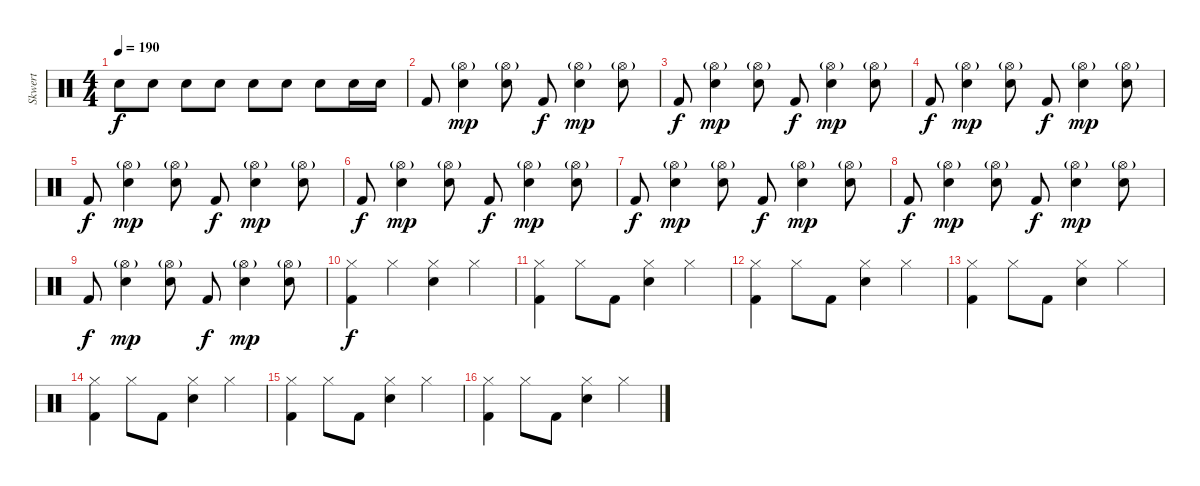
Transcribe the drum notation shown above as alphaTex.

\track ("Skwert" "Skwert") {instrument percussion}
\staff {score}
\articulation defaults
\ts (4 4)
\tempo 190
\clef neutral
\ks c "Electric Snare (hit)".8{dy f} "Electric Snare (hit)".8 "Electric Snare (hit)".8 "Electric Snare (hit)".8 "Electric Snare (hit)".8 "Electric Snare (hit)".8 "Electric Snare (hit)".8 "Electric Snare (hit)".16 "Electric Snare (hit)".16
|
"Kick (hit) 2".8 ("Hi-Hat (open)"{g} "Electric Snare (hit)").4{dy mp} ("Hi-Hat (open)"{g} "Electric Snare (hit)").8 "Kick (hit) 2".8{dy f} ("Hi-Hat (open)"{g} "Electric Snare (hit)").4{dy mp} ("Hi-Hat (open)"{g} "Electric Snare (hit)").8 |
"Kick (hit) 2".8{dy f} ("Hi-Hat (open)"{g} "Electric Snare (hit)").4{dy mp} ("Hi-Hat (open)"{g} "Electric Snare (hit)").8 "Kick (hit) 2".8{dy f} ("Hi-Hat (open)"{g} "Electric Snare (hit)").4{dy mp} ("Hi-Hat (open)"{g} "Electric Snare (hit)").8 |
"Kick (hit) 2".8{dy f} ("Hi-Hat (open)"{g} "Electric Snare (hit)").4{dy mp} ("Hi-Hat (open)"{g} "Electric Snare (hit)").8 "Kick (hit) 2".8{dy f} ("Hi-Hat (open)"{g} "Electric Snare (hit)").4{dy mp} ("Hi-Hat (open)"{g} "Electric Snare (hit)").8 |
"Kick (hit) 2".8{dy f} ("Hi-Hat (open)"{g} "Electric Snare (hit)").4{dy mp} ("Hi-Hat (open)"{g} "Electric Snare (hit)").8 "Kick (hit) 2".8{dy f} ("Hi-Hat (open)"{g} "Electric Snare (hit)").4{dy mp} ("Hi-Hat (open)"{g} "Electric Snare (hit)").8 |
"Kick (hit) 2".8{dy f} ("Hi-Hat (open)"{g} "Electric Snare (hit)").4{dy mp} ("Hi-Hat (open)"{g} "Electric Snare (hit)").8 "Kick (hit) 2".8{dy f} ("Hi-Hat (open)"{g} "Electric Snare (hit)").4{dy mp} ("Hi-Hat (open)"{g} "Electric Snare (hit)").8 |
"Kick (hit) 2".8{dy f} ("Hi-Hat (open)"{g} "Electric Snare (hit)").4{dy mp} ("Hi-Hat (open)"{g} "Electric Snare (hit)").8 "Kick (hit) 2".8{dy f} ("Hi-Hat (open)"{g} "Electric Snare (hit)").4{dy mp} ("Hi-Hat (open)"{g} "Electric Snare (hit)").8 |
"Kick (hit) 2".8{dy f} ("Hi-Hat (open)"{g} "Electric Snare (hit)").4{dy mp} ("Hi-Hat (open)"{g} "Electric Snare (hit)").8 "Kick (hit) 2".8{dy f} ("Hi-Hat (open)"{g} "Electric Snare (hit)").4{dy mp} ("Hi-Hat (open)"{g} "Electric Snare (hit)").8 |
"Kick (hit) 2".8{dy f} ("Hi-Hat (open)"{g} "Electric Snare (hit)").4{dy mp} ("Hi-Hat (open)"{g} "Electric Snare (hit)").8 "Kick (hit) 2".8{dy f} ("Hi-Hat (open)"{g} "Electric Snare (hit)").4{dy mp} ("Hi-Hat (open)"{g} "Electric Snare (hit)").8 |
("Hi-Hat (closed)" "Kick (hit) 2").4{dy f} "Hi-Hat (closed)".4 ("Hi-Hat (closed)" "Electric Snare (hit)").4 "Hi-Hat (closed)".4 |
("Hi-Hat (closed)" "Kick (hit) 2").4 "Hi-Hat (closed)".8 "Kick (hit) 2".8 ("Hi-Hat (closed)" "Electric Snare (hit)").4 "Hi-Hat (closed)".4 |
("Hi-Hat (closed)" "Kick (hit) 2").4 "Hi-Hat (closed)".8 "Kick (hit) 2".8 ("Hi-Hat (closed)" "Electric Snare (hit)").4 "Hi-Hat (closed)".4 |
("Hi-Hat (closed)" "Kick (hit) 2").4 "Hi-Hat (closed)".8 "Kick (hit) 2".8 ("Hi-Hat (closed)" "Electric Snare (hit)").4 "Hi-Hat (closed)".4 |
("Hi-Hat (closed)" "Kick (hit) 2").4 "Hi-Hat (closed)".8 "Kick (hit) 2".8 ("Hi-Hat (closed)" "Electric Snare (hit)").4 "Hi-Hat (closed)".4 |
("Hi-Hat (closed)" "Kick (hit) 2").4 "Hi-Hat (closed)".8 "Kick (hit) 2".8 ("Hi-Hat (closed)" "Electric Snare (hit)").4 "Hi-Hat (closed)".4 |
("Hi-Hat (closed)" "Kick (hit) 2").4 "Hi-Hat (closed)".8 "Kick (hit) 2".8 ("Hi-Hat (closed)" "Electric Snare (hit)").4 "Hi-Hat (closed)".4
